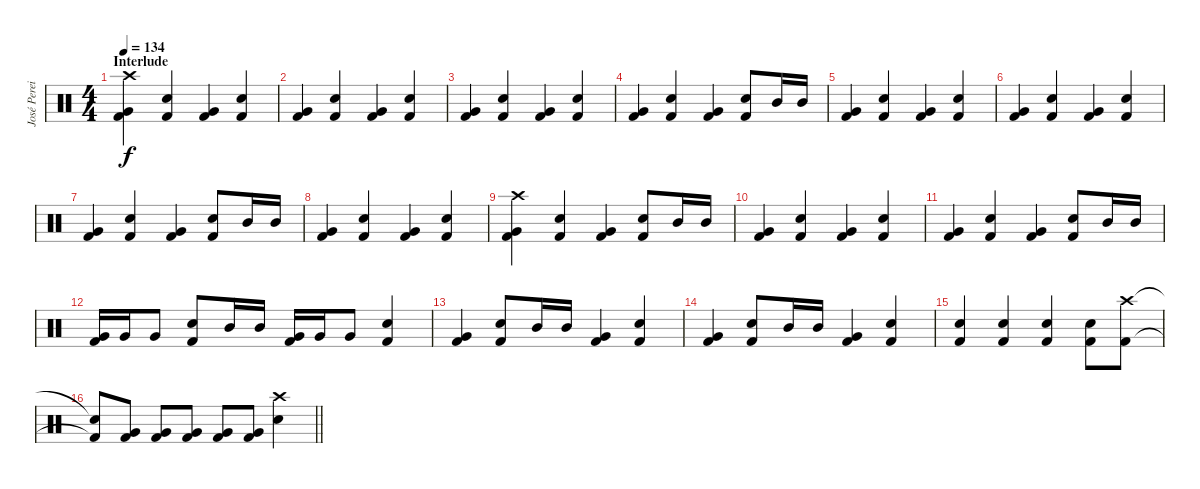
\track ("José Pereira" "José Perei") {instrument percussion}
\staff {score}
\articulation defaults
\ts (4 4)
\section ("" "Interlude")
\tempo 134
\clef neutral
\ks c
("Crash high (hit)" "Very Low Tom (hit)" "Kick (hit) 2").4{dy f} ("Snare (hit) 2" "Kick (hit) 2").4 ("Very Low Tom (hit)" "Kick (hit) 2").4 ("Snare (hit) 2" "Kick (hit) 2").4 |
("Very Low Tom (hit)" "Kick (hit) 2").4 ("Snare (hit) 2" "Kick (hit) 2").4 ("Very Low Tom (hit)" "Kick (hit) 2").4 ("Snare (hit) 2" "Kick (hit) 2").4 |
("Very Low Tom (hit)" "Kick (hit) 2").4 ("Snare (hit) 2" "Kick (hit) 2").4 ("Very Low Tom (hit)" "Kick (hit) 2").4 ("Snare (hit) 2" "Kick (hit) 2").4 |
("Very Low Tom (hit)" "Kick (hit) 2").4 ("Snare (hit) 2" "Kick (hit) 2").4 ("Very Low Tom (hit)" "Kick (hit) 2").4 ("Snare (hit) 2" "Kick (hit) 2").8 "Mid Tom (hit)".16 "Mid Tom (hit)".16 |
("Very Low Tom (hit)" "Kick (hit) 2").4 ("Snare (hit) 2" "Kick (hit) 2").4 ("Very Low Tom (hit)" "Kick (hit) 2").4 ("Snare (hit) 2" "Kick (hit) 2").4 |
("Very Low Tom (hit)" "Kick (hit) 2").4 ("Snare (hit) 2" "Kick (hit) 2").4 ("Very Low Tom (hit)" "Kick (hit) 2").4 ("Snare (hit) 2" "Kick (hit) 2").4 |
("Very Low Tom (hit)" "Kick (hit) 2").4 ("Snare (hit) 2" "Kick (hit) 2").4 ("Very Low Tom (hit)" "Kick (hit) 2").4 ("Snare (hit) 2" "Kick (hit) 2").8 "Mid Tom (hit)".16 "Mid Tom (hit)".16 |
("Very Low Tom (hit)" "Kick (hit) 2").4 ("Snare (hit) 2" "Kick (hit) 2").4 ("Very Low Tom (hit)" "Kick (hit) 2").4 ("Snare (hit) 2" "Kick (hit) 2").4 |
("Crash high (hit)" "Very Low Tom (hit)" "Kick (hit) 2").4 ("Snare (hit) 2" "Kick (hit) 2").4 ("Very Low Tom (hit)" "Kick (hit) 2").4 ("Snare (hit) 2" "Kick (hit) 2").8 "Mid Tom (hit)".16 "Mid Tom (hit)".16 |
("Very Low Tom (hit)" "Kick (hit) 2").4 ("Snare (hit) 2" "Kick (hit) 2").4 ("Very Low Tom (hit)" "Kick (hit) 2").4 ("Snare (hit) 2" "Kick (hit) 2").4 |
("Very Low Tom (hit)" "Kick (hit) 2").4 ("Snare (hit) 2" "Kick (hit) 2").4 ("Very Low Tom (hit)" "Kick (hit) 2").4 ("Snare (hit) 2" "Kick (hit) 2").8 "Mid Tom (hit)".16 "Mid Tom (hit)".16 |
("Very Low Tom (hit)" "Kick (hit) 2").16 "Very Low Tom (hit)".16 "Very Low Tom (hit)".8 ("Snare (hit) 2" "Kick (hit) 2").8 "Mid Tom (hit)".16 "Mid Tom (hit)".16 ("Very Low Tom (hit)" "Kick (hit) 2").16 "Very Low Tom (hit)".16 "Very Low Tom (hit)".8 ("Snare (hit) 2" "Kick (hit) 2").4 |
("Very Low Tom (hit)" "Kick (hit) 2").4 ("Snare (hit) 2" "Kick (hit) 2").8 "Mid Tom (hit)".16 "Mid Tom (hit)".16 ("Very Low Tom (hit)" "Kick (hit) 2").4 ("Snare (hit) 2" "Kick (hit) 2").4 |
("Very Low Tom (hit)" "Kick (hit) 2").4 ("Snare (hit) 2" "Kick (hit) 2").8 "Mid Tom (hit)".16 "Mid Tom (hit)".16 ("Very Low Tom (hit)" "Kick (hit) 2").4 ("Snare (hit) 2" "Kick (hit) 2").4 |
("Snare (hit) 2" "Kick (hit) 2").4 ("Snare (hit) 2" "Kick (hit) 2").4 ("Snare (hit) 2" "Kick (hit) 2").4 ("Snare (hit) 2" "Kick (hit) 2").8 ("Crash high (hit)" "Kick (hit) 2").8 |
\barLineRight lightlight
("Snare (hit)"{t} "Kick (hit) 2"{t}).8 ("Very Low Tom (hit)" "Kick (hit) 2").8 ("Very Low Tom (hit)" "Kick (hit) 2").8 ("Very Low Tom (hit)" "Kick (hit) 2").8 ("Very Low Tom (hit)" "Kick (hit) 2").8 ("Very Low Tom (hit)" "Kick (hit) 2").8 ("Crash high (hit)" "Snare (hit) 2").4
